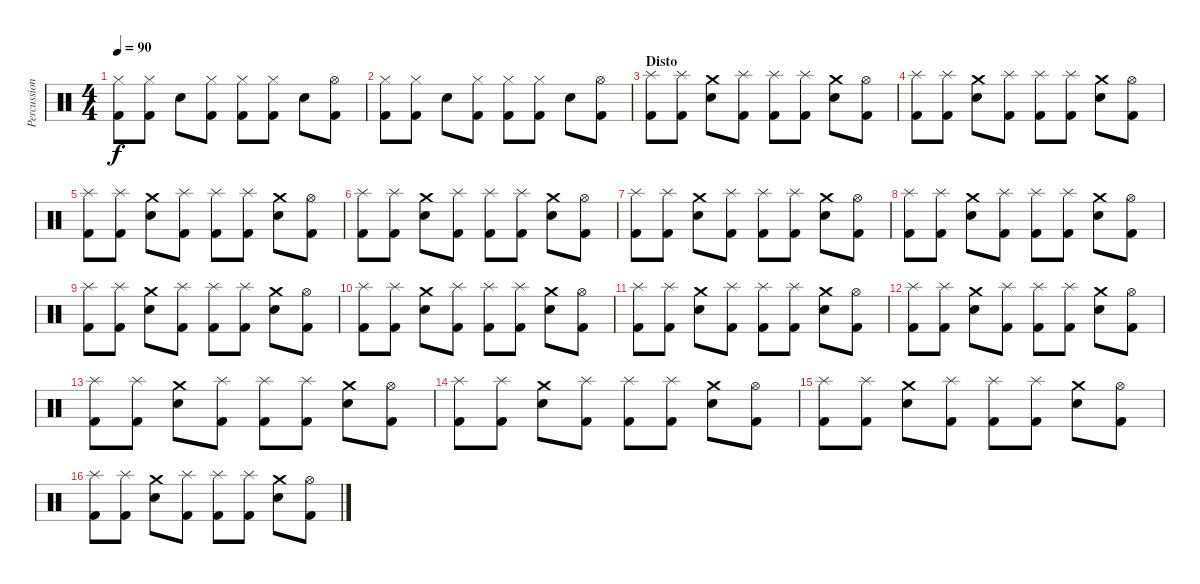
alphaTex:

\track ("Percussions" "Percussion") {instrument percussion}
\staff {score}
\articulation defaults
\ts (4 4)
\tempo 90
\clef neutral
\ks c
("Hi-Hat (closed)" "Kick (hit) 2").8{dy f} ("Hi-Hat (closed)" "Kick (hit) 2").8 "Snare (hit) 2".8 ("Hi-Hat (closed)" "Kick (hit) 2").8 ("Hi-Hat (closed)" "Kick (hit) 2").8 ("Hi-Hat (closed)" "Kick (hit) 2").8 "Snare (hit) 2".8 ("Hi-Hat (open)" "Kick (hit) 2").8 |
("Hi-Hat (closed)" "Kick (hit) 2").8 ("Hi-Hat (closed)" "Kick (hit) 2").8 "Snare (hit) 2".8 ("Hi-Hat (closed)" "Kick (hit) 2").8 ("Hi-Hat (closed)" "Kick (hit) 2").8 ("Hi-Hat (closed)" "Kick (hit) 2").8 "Snare (hit) 2".8 ("Hi-Hat (open)" "Kick (hit) 2").8 |
\section ("" "Disto")
("Splash (hit)" "Kick (hit) 2").8 ("Splash (hit)" "Kick (hit) 2").8 ("Crash medium (hit)" "Snare (hit) 2").8 ("Splash (hit)" "Kick (hit) 2").8 ("Splash (hit)" "Kick (hit) 2").8 ("Splash (hit)" "Kick (hit) 2").8 ("Crash medium (hit)" "Snare (hit) 2").8 ("Hi-Hat (open)" "Kick (hit) 2").8 |
("Splash (hit)" "Kick (hit) 2").8 ("Splash (hit)" "Kick (hit) 2").8 ("Crash medium (hit)" "Snare (hit) 2").8 ("Splash (hit)" "Kick (hit) 2").8 ("Splash (hit)" "Kick (hit) 2").8 ("Splash (hit)" "Kick (hit) 2").8 ("Crash medium (hit)" "Snare (hit) 2").8 ("Hi-Hat (open)" "Kick (hit) 2").8 |
("Splash (hit)" "Kick (hit) 2").8 ("Splash (hit)" "Kick (hit) 2").8 ("Crash medium (hit)" "Snare (hit) 2").8 ("Splash (hit)" "Kick (hit) 2").8 ("Splash (hit)" "Kick (hit) 2").8 ("Splash (hit)" "Kick (hit) 2").8 ("Crash medium (hit)" "Snare (hit) 2").8 ("Hi-Hat (open)" "Kick (hit) 2").8 |
("Splash (hit)" "Kick (hit) 2").8 ("Splash (hit)" "Kick (hit) 2").8 ("Crash medium (hit)" "Snare (hit) 2").8 ("Splash (hit)" "Kick (hit) 2").8 ("Splash (hit)" "Kick (hit) 2").8 ("Splash (hit)" "Kick (hit) 2").8 ("Crash medium (hit)" "Snare (hit) 2").8 ("Hi-Hat (open)" "Kick (hit) 2").8 |
("Splash (hit)" "Kick (hit) 2").8 ("Splash (hit)" "Kick (hit) 2").8 ("Crash medium (hit)" "Snare (hit) 2").8 ("Splash (hit)" "Kick (hit) 2").8 ("Splash (hit)" "Kick (hit) 2").8 ("Splash (hit)" "Kick (hit) 2").8 ("Crash medium (hit)" "Snare (hit) 2").8 ("Hi-Hat (open)" "Kick (hit) 2").8 |
("Splash (hit)" "Kick (hit) 2").8 ("Splash (hit)" "Kick (hit) 2").8 ("Crash medium (hit)" "Snare (hit) 2").8 ("Splash (hit)" "Kick (hit) 2").8 ("Splash (hit)" "Kick (hit) 2").8 ("Splash (hit)" "Kick (hit) 2").8 ("Crash medium (hit)" "Snare (hit) 2").8 ("Hi-Hat (open)" "Kick (hit) 2").8 |
("Splash (hit)" "Kick (hit) 2").8 ("Splash (hit)" "Kick (hit) 2").8 ("Crash medium (hit)" "Snare (hit) 2").8 ("Splash (hit)" "Kick (hit) 2").8 ("Splash (hit)" "Kick (hit) 2").8 ("Splash (hit)" "Kick (hit) 2").8 ("Crash medium (hit)" "Snare (hit) 2").8 ("Hi-Hat (open)" "Kick (hit) 2").8 |
("Splash (hit)" "Kick (hit) 2").8 ("Splash (hit)" "Kick (hit) 2").8 ("Crash medium (hit)" "Snare (hit) 2").8 ("Splash (hit)" "Kick (hit) 2").8 ("Splash (hit)" "Kick (hit) 2").8 ("Splash (hit)" "Kick (hit) 2").8 ("Crash medium (hit)" "Snare (hit) 2").8 ("Hi-Hat (open)" "Kick (hit) 2").8 |
("Splash (hit)" "Kick (hit) 2").8 ("Splash (hit)" "Kick (hit) 2").8 ("Crash medium (hit)" "Snare (hit) 2").8 ("Splash (hit)" "Kick (hit) 2").8 ("Splash (hit)" "Kick (hit) 2").8 ("Splash (hit)" "Kick (hit) 2").8 ("Crash medium (hit)" "Snare (hit) 2").8 ("Hi-Hat (open)" "Kick (hit) 2").8 |
("Splash (hit)" "Kick (hit) 2").8 ("Splash (hit)" "Kick (hit) 2").8 ("Crash medium (hit)" "Snare (hit) 2").8 ("Splash (hit)" "Kick (hit) 2").8 ("Splash (hit)" "Kick (hit) 2").8 ("Splash (hit)" "Kick (hit) 2").8 ("Crash medium (hit)" "Snare (hit) 2").8 ("Hi-Hat (open)" "Kick (hit) 2").8 |
("Splash (hit)" "Kick (hit) 2").8 ("Splash (hit)" "Kick (hit) 2").8 ("Crash medium (hit)" "Snare (hit) 2").8 ("Splash (hit)" "Kick (hit) 2").8 ("Splash (hit)" "Kick (hit) 2").8 ("Splash (hit)" "Kick (hit) 2").8 ("Crash medium (hit)" "Snare (hit) 2").8 ("Hi-Hat (open)" "Kick (hit) 2").8 |
("Splash (hit)" "Kick (hit) 2").8 ("Splash (hit)" "Kick (hit) 2").8 ("Crash medium (hit)" "Snare (hit) 2").8 ("Splash (hit)" "Kick (hit) 2").8 ("Splash (hit)" "Kick (hit) 2").8 ("Splash (hit)" "Kick (hit) 2").8 ("Crash medium (hit)" "Snare (hit) 2").8 ("Hi-Hat (open)" "Kick (hit) 2").8 |
("Splash (hit)" "Kick (hit) 2").8 ("Splash (hit)" "Kick (hit) 2").8 ("Crash medium (hit)" "Snare (hit) 2").8 ("Splash (hit)" "Kick (hit) 2").8 ("Splash (hit)" "Kick (hit) 2").8 ("Splash (hit)" "Kick (hit) 2").8 ("Crash medium (hit)" "Snare (hit) 2").8 ("Hi-Hat (open)" "Kick (hit) 2").8 |
("Splash (hit)" "Kick (hit) 2").8 ("Splash (hit)" "Kick (hit) 2").8 ("Crash medium (hit)" "Snare (hit) 2").8 ("Splash (hit)" "Kick (hit) 2").8 ("Splash (hit)" "Kick (hit) 2").8 ("Splash (hit)" "Kick (hit) 2").8 ("Crash medium (hit)" "Snare (hit) 2").8 ("Hi-Hat (open)" "Kick (hit) 2").8
